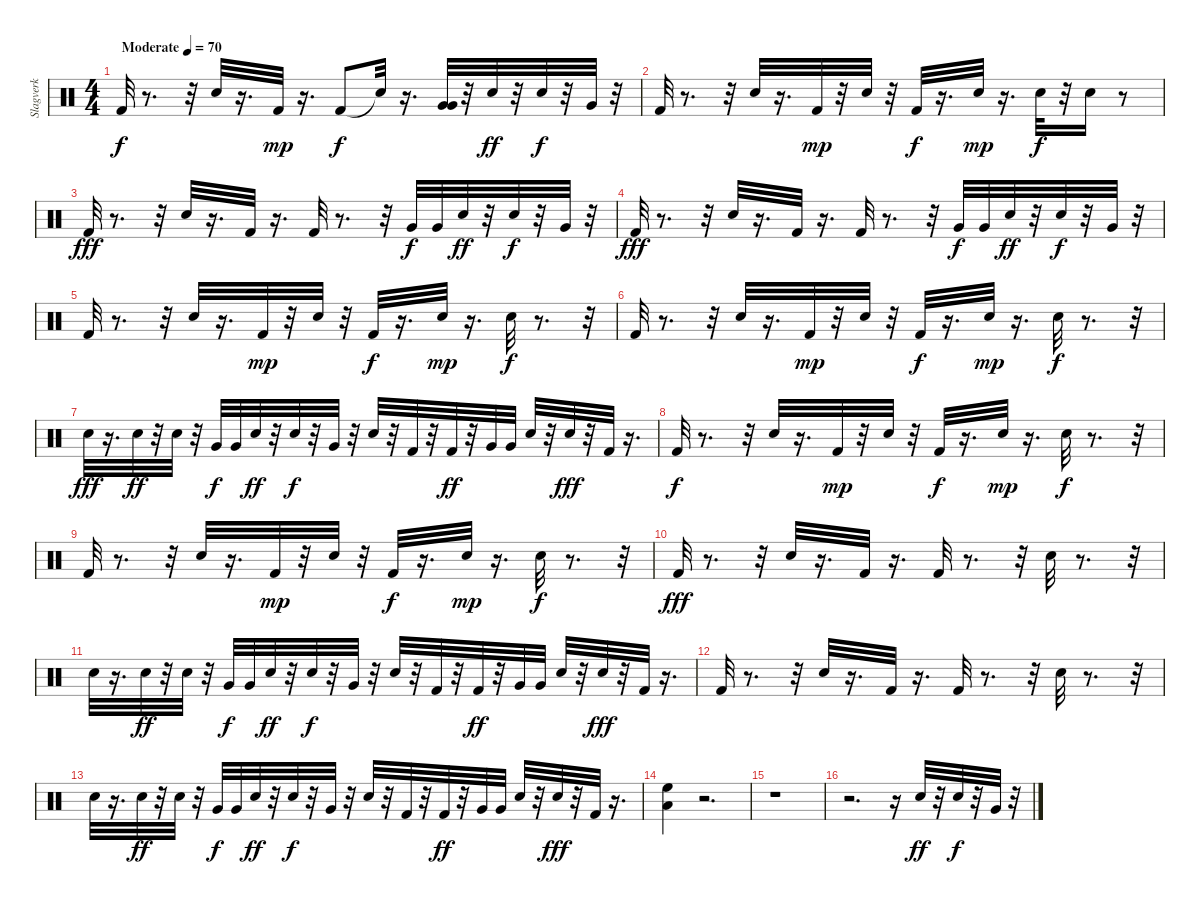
\track ("Slagverk" "Slagverk") {instrument percussion}
\staff {score}
\articulation defaults
\ts (4 4)
\tempo (70 "Moderate")
\clef neutral
\ks c "Kick (hit) 2".32{dy f}
r.8{d} r.32 "Electric Snare (hit)".32 r.16{d} "Kick (hit) 2".32{dy mp} r.16{d} "Kick (hit) 2".8{dy f} "Snare (hit)"{t}.32 r.16{d} ("Very Low Tom (hit)" "Very Low Tom (hit)").32 r.32 "Electric Snare (hit)".32{dy ff} r.32 "Electric Snare (hit)".32{dy f} r.32 "Very Low Tom (hit)".32 r.32 |
"Kick (hit) 2".32 r.8{d} r.32 "Electric Snare (hit)".32 r.16{d} "Kick (hit) 2".32{dy mp} r.32 "Electric Snare (hit)".32 r.32 "Kick (hit) 2".32{dy f} r.16{d} "Electric Snare (hit)".32{dy mp} r.16{d} "Electric Snare (hit)".32{dy f} r.32 "Snare (hit) 2".16 r.8 |
"Kick (hit) 2".32{dy fff} r.8{d} r.32 "Electric Snare (hit)".32 r.16{d} "Kick (hit) 2".32 r.16{d} "Kick (hit) 2".32 r.8{d} r.32 "Very Low Tom (hit)".32{dy f} "Very Low Tom (hit)".32 "Electric Snare (hit)".32{dy ff} r.32 "Electric Snare (hit)".32{dy f} r.32 "Very Low Tom (hit)".32 r.32 |
"Kick (hit) 2".32{dy fff} r.8{d} r.32 "Electric Snare (hit)".32 r.16{d} "Kick (hit) 2".32 r.16{d} "Kick (hit) 2".32 r.8{d} r.32 "Very Low Tom (hit)".32{dy f} "Very Low Tom (hit)".32 "Electric Snare (hit)".32{dy ff} r.32 "Electric Snare (hit)".32{dy f} r.32 "Very Low Tom (hit)".32 r.32 |
"Kick (hit) 2".32 r.8{d} r.32 "Electric Snare (hit)".32 r.16{d} "Kick (hit) 2".32{dy mp} r.32 "Electric Snare (hit)".32 r.32 "Kick (hit) 2".32{dy f} r.16{d} "Electric Snare (hit)".32{dy mp} r.16{d} "Electric Snare (hit)".32{dy f} r.8{d} r.32 |
"Kick (hit) 2".32 r.8{d} r.32 "Electric Snare (hit)".32 r.16{d} "Kick (hit) 2".32{dy mp} r.32 "Electric Snare (hit)".32 r.32 "Kick (hit) 2".32{dy f} r.16{d} "Electric Snare (hit)".32{dy mp} r.16{d} "Electric Snare (hit)".32{dy f} r.8{d} r.32 |
"Electric Snare (hit)".32{dy fff} r.16{d} "Electric Snare (hit)".32{dy ff} r.32 "Electric Snare (hit)".32 r.32 "Very Low Tom (hit)".32{dy f} "Very Low Tom (hit)".32 "Electric Snare (hit)".32{dy ff} r.32 "Electric Snare (hit)".32{dy f} r.32 "Very Low Tom (hit)".32 r.32 "Electric Snare (hit)".32 r.32 "Kick (hit) 2".32 r.32 "Kick (hit) 2".32{dy ff} r.32 "Very Low Tom (hit)".32 "Very Low Tom (hit)".32 "Electric Snare (hit)".32 r.32 "Electric Snare (hit)".32{dy fff} r.32 "Kick (hit) 2".32 r.16{d} |
"Kick (hit) 2".32{dy f} r.8{d} r.32 "Electric Snare (hit)".32 r.16{d} "Kick (hit) 2".32{dy mp} r.32 "Electric Snare (hit)".32 r.32 "Kick (hit) 2".32{dy f} r.16{d} "Electric Snare (hit)".32{dy mp} r.16{d} "Electric Snare (hit)".32{dy f} r.8{d} r.32 |
"Kick (hit) 2".32 r.8{d} r.32 "Electric Snare (hit)".32 r.16{d} "Kick (hit) 2".32{dy mp} r.32 "Electric Snare (hit)".32 r.32 "Kick (hit) 2".32{dy f} r.16{d} "Electric Snare (hit)".32{dy mp} r.16{d} "Electric Snare (hit)".32{dy f} r.8{d} r.32 |
"Kick (hit) 2".32{dy fff} r.8{d} r.32 "Electric Snare (hit)".32 r.16{d} "Kick (hit) 2".32 r.16{d} "Kick (hit) 2".32 r.8{d} r.32 "Electric Snare (hit)".32 r.8{d} r.32 |
"Electric Snare (hit)".32 r.16{d} "Electric Snare (hit)".32{dy ff} r.32 "Electric Snare (hit)".32 r.32 "Very Low Tom (hit)".32{dy f} "Very Low Tom (hit)".32 "Electric Snare (hit)".32{dy ff} r.32 "Electric Snare (hit)".32{dy f} r.32 "Very Low Tom (hit)".32 r.32 "Electric Snare (hit)".32 r.32 "Kick (hit) 2".32 r.32 "Kick (hit) 2".32{dy ff} r.32 "Very Low Tom (hit)".32 "Very Low Tom (hit)".32 "Electric Snare (hit)".32 r.32 "Electric Snare (hit)".32{dy fff} r.32 "Kick (hit) 2".32 r.16{d} |
"Kick (hit) 2".32 r.8{d} r.32 "Electric Snare (hit)".32 r.16{d} "Kick (hit) 2".32 r.16{d} "Kick (hit) 2".32 r.8{d} r.32 "Electric Snare (hit)".32 r.8{d} r.32 |
"Electric Snare (hit)".32 r.16{d} "Electric Snare (hit)".32{dy ff} r.32 "Electric Snare (hit)".32 r.32 "Very Low Tom (hit)".32{dy f} "Very Low Tom (hit)".32 "Electric Snare (hit)".32{dy ff} r.32 "Electric Snare (hit)".32{dy f} r.32 "Very Low Tom (hit)".32 r.32 "Electric Snare (hit)".32 r.32 "Kick (hit) 2".32 r.32 "Kick (hit) 2".32{dy ff} r.32 "Very Low Tom (hit)".32 "Very Low Tom (hit)".32 "Electric Snare (hit)".32 r.32 "Electric Snare (hit)".32{dy fff} r.32 "Kick (hit) 2".32 r.16{d} |
("Low Tom (hit)" "High Floor Tom (hit)").4 r.2{d} |
r.1 |
r.2{d} r.16 "Electric Snare (hit)".32{dy ff} r.32 "Electric Snare (hit)".32{dy f} r.32 "Very Low Tom (hit)".32 r.32
